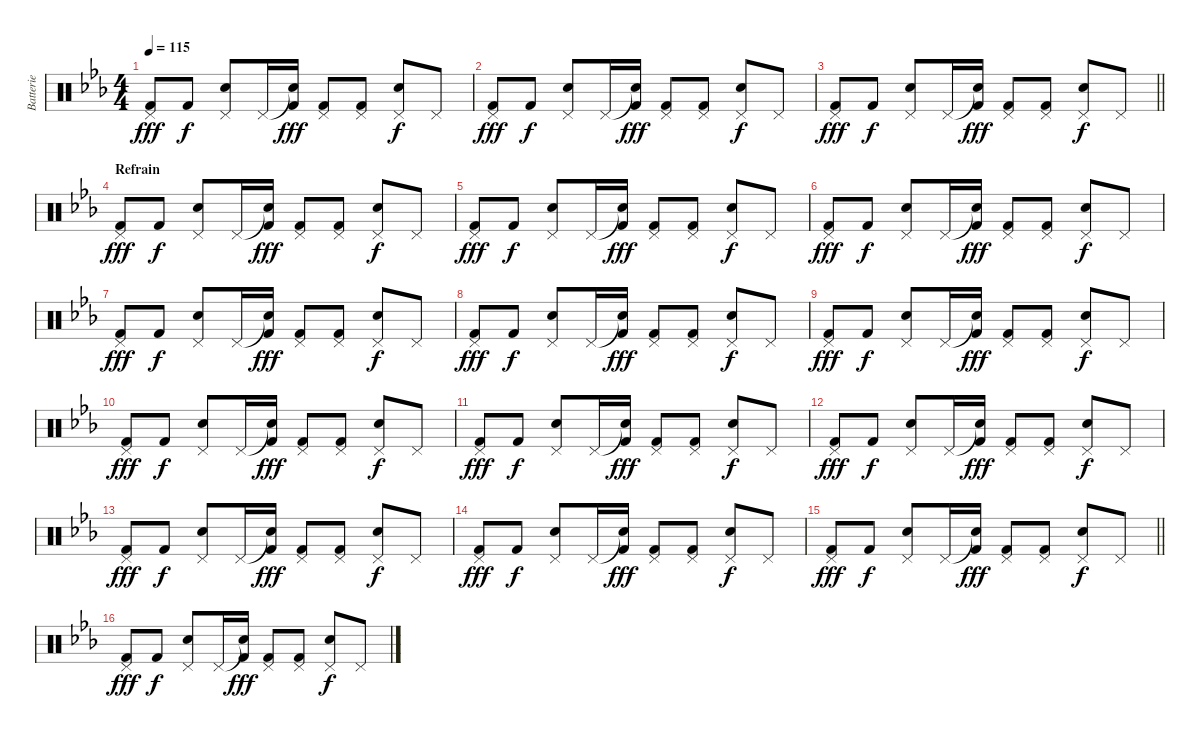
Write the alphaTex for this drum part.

\track ("Batterie" "Batterie") {instrument percussion}
\staff {score}
\articulation defaults
\ts (4 4)
\tempo 115
\clef neutral
\ks eb
("Pedal Hi-Hat (hit)" "Kick (hit) 2").8{dy fff} "Kick (hit) 2".8{dy f} ("Pedal Hi-Hat (hit)" "Snare (hit) 2").8 "Pedal Hi-Hat (hit)".16 ("Snare (hit)"{t} "Kick (hit) 2").16{dy fff} ("Pedal Hi-Hat (hit)" "Kick (hit) 2").8 ("Pedal Hi-Hat (hit)" "Kick (hit) 2").8 ("Pedal Hi-Hat (hit)" "Snare (hit) 2").8{dy f} "Pedal Hi-Hat (hit)".8 |
("Pedal Hi-Hat (hit)" "Kick (hit) 2").8{dy fff} "Kick (hit) 2".8{dy f} ("Pedal Hi-Hat (hit)" "Snare (hit) 2").8 "Pedal Hi-Hat (hit)".16 ("Snare (hit)"{t} "Kick (hit) 2").16{dy fff} ("Pedal Hi-Hat (hit)" "Kick (hit) 2").8 ("Pedal Hi-Hat (hit)" "Kick (hit) 2").8 ("Pedal Hi-Hat (hit)" "Snare (hit) 2").8{dy f} "Pedal Hi-Hat (hit)".8 |
\barLineRight lightlight
("Pedal Hi-Hat (hit)" "Kick (hit) 2").8{dy fff} "Kick (hit) 2".8{dy f} ("Pedal Hi-Hat (hit)" "Snare (hit) 2").8 "Pedal Hi-Hat (hit)".16 ("Snare (hit)"{t} "Kick (hit) 2").16{dy fff} ("Pedal Hi-Hat (hit)" "Kick (hit) 2").8 ("Pedal Hi-Hat (hit)" "Kick (hit) 2").8 ("Pedal Hi-Hat (hit)" "Snare (hit) 2").8{dy f} "Pedal Hi-Hat (hit)".8 |
\section ("" "Refrain")
("Pedal Hi-Hat (hit)" "Kick (hit) 2").8{dy fff} "Kick (hit) 2".8{dy f} ("Pedal Hi-Hat (hit)" "Snare (hit) 2").8 "Pedal Hi-Hat (hit)".16 ("Snare (hit)"{t} "Kick (hit) 2").16{dy fff} ("Pedal Hi-Hat (hit)" "Kick (hit) 2").8 ("Pedal Hi-Hat (hit)" "Kick (hit) 2").8 ("Pedal Hi-Hat (hit)" "Snare (hit) 2").8{dy f} "Pedal Hi-Hat (hit)".8 |
("Pedal Hi-Hat (hit)" "Kick (hit) 2").8{dy fff} "Kick (hit) 2".8{dy f} ("Pedal Hi-Hat (hit)" "Snare (hit) 2").8 "Pedal Hi-Hat (hit)".16 ("Snare (hit)"{t} "Kick (hit) 2").16{dy fff} ("Pedal Hi-Hat (hit)" "Kick (hit) 2").8 ("Pedal Hi-Hat (hit)" "Kick (hit) 2").8 ("Pedal Hi-Hat (hit)" "Snare (hit) 2").8{dy f} "Pedal Hi-Hat (hit)".8 |
("Pedal Hi-Hat (hit)" "Kick (hit) 2").8{dy fff} "Kick (hit) 2".8{dy f} ("Pedal Hi-Hat (hit)" "Snare (hit) 2").8 "Pedal Hi-Hat (hit)".16 ("Snare (hit)"{t} "Kick (hit) 2").16{dy fff} ("Pedal Hi-Hat (hit)" "Kick (hit) 2").8 ("Pedal Hi-Hat (hit)" "Kick (hit) 2").8 ("Pedal Hi-Hat (hit)" "Snare (hit) 2").8{dy f} "Pedal Hi-Hat (hit)".8 |
("Pedal Hi-Hat (hit)" "Kick (hit) 2").8{dy fff} "Kick (hit) 2".8{dy f} ("Pedal Hi-Hat (hit)" "Snare (hit) 2").8 "Pedal Hi-Hat (hit)".16 ("Snare (hit)"{t} "Kick (hit) 2").16{dy fff} ("Pedal Hi-Hat (hit)" "Kick (hit) 2").8 ("Pedal Hi-Hat (hit)" "Kick (hit) 2").8 ("Pedal Hi-Hat (hit)" "Snare (hit) 2").8{dy f} "Pedal Hi-Hat (hit)".8 |
("Pedal Hi-Hat (hit)" "Kick (hit) 2").8{dy fff} "Kick (hit) 2".8{dy f} ("Pedal Hi-Hat (hit)" "Snare (hit) 2").8 "Pedal Hi-Hat (hit)".16 ("Snare (hit)"{t} "Kick (hit) 2").16{dy fff} ("Pedal Hi-Hat (hit)" "Kick (hit) 2").8 ("Pedal Hi-Hat (hit)" "Kick (hit) 2").8 ("Pedal Hi-Hat (hit)" "Snare (hit) 2").8{dy f} "Pedal Hi-Hat (hit)".8 |
("Pedal Hi-Hat (hit)" "Kick (hit) 2").8{dy fff} "Kick (hit) 2".8{dy f} ("Pedal Hi-Hat (hit)" "Snare (hit) 2").8 "Pedal Hi-Hat (hit)".16 ("Snare (hit)"{t} "Kick (hit) 2").16{dy fff} ("Pedal Hi-Hat (hit)" "Kick (hit) 2").8 ("Pedal Hi-Hat (hit)" "Kick (hit) 2").8 ("Pedal Hi-Hat (hit)" "Snare (hit) 2").8{dy f} "Pedal Hi-Hat (hit)".8 |
("Pedal Hi-Hat (hit)" "Kick (hit) 2").8{dy fff} "Kick (hit) 2".8{dy f} ("Pedal Hi-Hat (hit)" "Snare (hit) 2").8 "Pedal Hi-Hat (hit)".16 ("Snare (hit)"{t} "Kick (hit) 2").16{dy fff} ("Pedal Hi-Hat (hit)" "Kick (hit) 2").8 ("Pedal Hi-Hat (hit)" "Kick (hit) 2").8 ("Pedal Hi-Hat (hit)" "Snare (hit) 2").8{dy f} "Pedal Hi-Hat (hit)".8 |
("Pedal Hi-Hat (hit)" "Kick (hit) 2").8{dy fff} "Kick (hit) 2".8{dy f} ("Pedal Hi-Hat (hit)" "Snare (hit) 2").8 "Pedal Hi-Hat (hit)".16 ("Snare (hit)"{t} "Kick (hit) 2").16{dy fff} ("Pedal Hi-Hat (hit)" "Kick (hit) 2").8 ("Pedal Hi-Hat (hit)" "Kick (hit) 2").8 ("Pedal Hi-Hat (hit)" "Snare (hit) 2").8{dy f} "Pedal Hi-Hat (hit)".8 |
("Pedal Hi-Hat (hit)" "Kick (hit) 2").8{dy fff} "Kick (hit) 2".8{dy f} ("Pedal Hi-Hat (hit)" "Snare (hit) 2").8 "Pedal Hi-Hat (hit)".16 ("Snare (hit)"{t} "Kick (hit) 2").16{dy fff} ("Pedal Hi-Hat (hit)" "Kick (hit) 2").8 ("Pedal Hi-Hat (hit)" "Kick (hit) 2").8 ("Pedal Hi-Hat (hit)" "Snare (hit) 2").8{dy f} "Pedal Hi-Hat (hit)".8 |
("Pedal Hi-Hat (hit)" "Kick (hit) 2").8{dy fff} "Kick (hit) 2".8{dy f} ("Pedal Hi-Hat (hit)" "Snare (hit) 2").8 "Pedal Hi-Hat (hit)".16 ("Snare (hit)"{t} "Kick (hit) 2").16{dy fff} ("Pedal Hi-Hat (hit)" "Kick (hit) 2").8 ("Pedal Hi-Hat (hit)" "Kick (hit) 2").8 ("Pedal Hi-Hat (hit)" "Snare (hit) 2").8{dy f} "Pedal Hi-Hat (hit)".8 |
("Pedal Hi-Hat (hit)" "Kick (hit) 2").8{dy fff} "Kick (hit) 2".8{dy f} ("Pedal Hi-Hat (hit)" "Snare (hit) 2").8 "Pedal Hi-Hat (hit)".16 ("Snare (hit)"{t} "Kick (hit) 2").16{dy fff} ("Pedal Hi-Hat (hit)" "Kick (hit) 2").8 ("Pedal Hi-Hat (hit)" "Kick (hit) 2").8 ("Pedal Hi-Hat (hit)" "Snare (hit) 2").8{dy f} "Pedal Hi-Hat (hit)".8 |
\barLineRight lightlight
("Pedal Hi-Hat (hit)" "Kick (hit) 2").8{dy fff} "Kick (hit) 2".8{dy f} ("Pedal Hi-Hat (hit)" "Snare (hit) 2").8 "Pedal Hi-Hat (hit)".16 ("Snare (hit)"{t} "Kick (hit) 2").16{dy fff} ("Pedal Hi-Hat (hit)" "Kick (hit) 2").8 ("Pedal Hi-Hat (hit)" "Kick (hit) 2").8 ("Pedal Hi-Hat (hit)" "Snare (hit) 2").8{dy f} "Pedal Hi-Hat (hit)".8 |
("Pedal Hi-Hat (hit)" "Kick (hit) 2").8{dy fff} "Kick (hit) 2".8{dy f} ("Pedal Hi-Hat (hit)" "Snare (hit) 2").8 "Pedal Hi-Hat (hit)".16 ("Snare (hit)"{t} "Kick (hit) 2").16{dy fff} ("Pedal Hi-Hat (hit)" "Kick (hit) 2").8 ("Pedal Hi-Hat (hit)" "Kick (hit) 2").8 ("Pedal Hi-Hat (hit)" "Snare (hit) 2").8{dy f} "Pedal Hi-Hat (hit)".8
